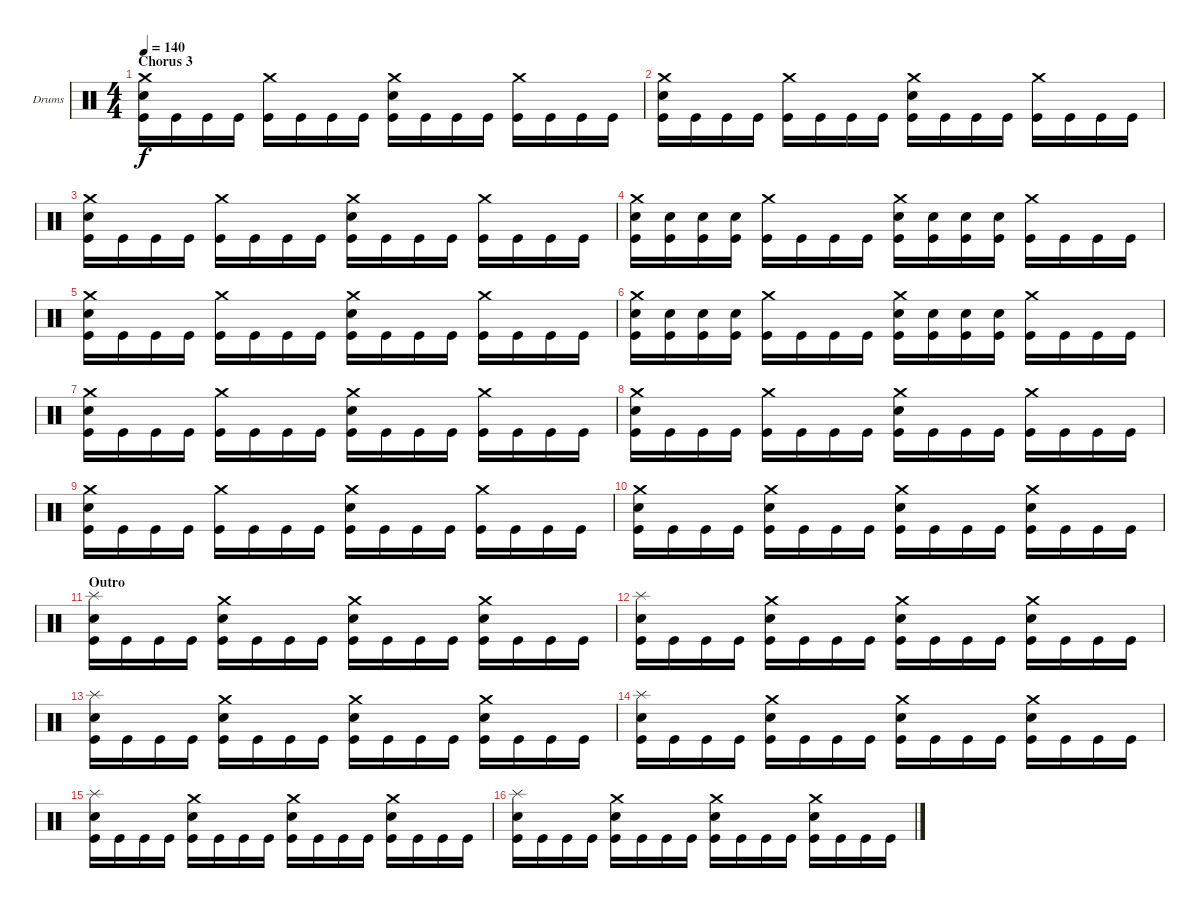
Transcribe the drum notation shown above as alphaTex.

\defaultSystemsLayout 4
\bracketExtendMode groupsimilarinstruments
\firstSystemTrackNameOrientation horizontal
\otherSystemsTrackNameOrientation horizontal
\track ("Ventor" "Drums") {instrument percussion}
\staff {score}
\articulation defaults
\ts (4 4)
\section ("" "Chorus 3")
\tempo 140
\clef neutral
\scale
0.5
\ks c
("Kick (hit)" "Snare (hit) 2" "Crash medium (hit)").16{dy f} "Kick (hit)".16 "Kick (hit)".16 "Kick (hit)".16 ("Kick (hit)" "Crash medium (hit)").16 "Kick (hit)".16 "Kick (hit)".16 "Kick (hit)".16 ("Kick (hit)" "Snare (hit) 2" "Crash medium (hit)").16 "Kick (hit)".16 "Kick (hit)".16 "Kick (hit)".16 ("Kick (hit)" "Crash medium (hit)").16 "Kick (hit)".16 "Kick (hit)".16 "Kick (hit)".16 |
\scale
0.5 ("Kick (hit)" "Snare (hit) 2" "Crash medium (hit)").16 "Kick (hit)".16 "Kick (hit)".16 "Kick (hit)".16 ("Kick (hit)" "Crash medium (hit)").16 "Kick (hit)".16 "Kick (hit)".16 "Kick (hit)".16 ("Kick (hit)" "Snare (hit) 2" "Crash medium (hit)").16 "Kick (hit)".16 "Kick (hit)".16 "Kick (hit)".16 ("Kick (hit)" "Crash medium (hit)").16 "Kick (hit)".16 "Kick (hit)".16 "Kick (hit)".16 |
\scale
0.5 ("Kick (hit)" "Snare (hit) 2" "Crash medium (hit)").16 "Kick (hit)".16 "Kick (hit)".16 "Kick (hit)".16 ("Kick (hit)" "Crash medium (hit)").16 "Kick (hit)".16 "Kick (hit)".16 "Kick (hit)".16 ("Kick (hit)" "Snare (hit) 2" "Crash medium (hit)").16 "Kick (hit)".16 "Kick (hit)".16 "Kick (hit)".16 ("Kick (hit)" "Crash medium (hit)").16 "Kick (hit)".16 "Kick (hit)".16 "Kick (hit)".16 |
\scale
0.5 ("Kick (hit)" "Snare (hit) 2" "Crash medium (hit)").16 ("Kick (hit)" "Snare (hit) 2").16 ("Kick (hit)" "Snare (hit) 2").16 ("Kick (hit)" "Snare (hit) 2").16 ("Kick (hit)" "Crash medium (hit)").16 "Kick (hit)".16 "Kick (hit)".16 "Kick (hit)".16 ("Kick (hit)" "Snare (hit) 2" "Crash medium (hit)").16 ("Kick (hit)" "Snare (hit) 2").16 ("Kick (hit)" "Snare (hit) 2").16 ("Kick (hit)" "Snare (hit) 2").16 ("Kick (hit)" "Crash medium (hit)").16 "Kick (hit)".16 "Kick (hit)".16 "Kick (hit)".16 |
\scale
0.5 ("Kick (hit)" "Snare (hit) 2" "Crash medium (hit)").16 "Kick (hit)".16 "Kick (hit)".16 "Kick (hit)".16 ("Kick (hit)" "Crash medium (hit)").16 "Kick (hit)".16 "Kick (hit)".16 "Kick (hit)".16 ("Kick (hit)" "Snare (hit) 2" "Crash medium (hit)").16 "Kick (hit)".16 "Kick (hit)".16 "Kick (hit)".16 ("Kick (hit)" "Crash medium (hit)").16 "Kick (hit)".16 "Kick (hit)".16 "Kick (hit)".16 |
\scale
0.5 ("Kick (hit)" "Snare (hit) 2" "Crash medium (hit)").16 ("Kick (hit)" "Snare (hit) 2").16 ("Kick (hit)" "Snare (hit) 2").16 ("Kick (hit)" "Snare (hit) 2").16 ("Kick (hit)" "Crash medium (hit)").16 "Kick (hit)".16 "Kick (hit)".16 "Kick (hit)".16 ("Kick (hit)" "Snare (hit) 2" "Crash medium (hit)").16 ("Kick (hit)" "Snare (hit) 2").16 ("Kick (hit)" "Snare (hit) 2").16 ("Kick (hit)" "Snare (hit) 2").16 ("Kick (hit)" "Crash medium (hit)").16 "Kick (hit)".16 "Kick (hit)".16 "Kick (hit)".16 |
\scale
0.5 ("Kick (hit)" "Snare (hit) 2" "Crash medium (hit)").16 "Kick (hit)".16 "Kick (hit)".16 "Kick (hit)".16 ("Kick (hit)" "Crash medium (hit)").16 "Kick (hit)".16 "Kick (hit)".16 "Kick (hit)".16 ("Kick (hit)" "Snare (hit) 2" "Crash medium (hit)").16 "Kick (hit)".16 "Kick (hit)".16 "Kick (hit)".16 ("Kick (hit)" "Crash medium (hit)").16 "Kick (hit)".16 "Kick (hit)".16 "Kick (hit)".16 |
\scale
0.5 ("Kick (hit)" "Snare (hit) 2" "Crash medium (hit)").16 "Kick (hit)".16 "Kick (hit)".16 "Kick (hit)".16 ("Kick (hit)" "Crash medium (hit)").16 "Kick (hit)".16 "Kick (hit)".16 "Kick (hit)".16 ("Kick (hit)" "Snare (hit) 2" "Crash medium (hit)").16 "Kick (hit)".16 "Kick (hit)".16 "Kick (hit)".16 ("Kick (hit)" "Crash medium (hit)").16 "Kick (hit)".16 "Kick (hit)".16 "Kick (hit)".16 |
\scale
0.5 ("Kick (hit)" "Snare (hit) 2" "Crash medium (hit)").16 "Kick (hit)".16 "Kick (hit)".16 "Kick (hit)".16 ("Kick (hit)" "Crash medium (hit)").16 "Kick (hit)".16 "Kick (hit)".16 "Kick (hit)".16 ("Kick (hit)" "Snare (hit) 2" "Crash medium (hit)").16 "Kick (hit)".16 "Kick (hit)".16 "Kick (hit)".16 ("Kick (hit)" "Crash medium (hit)").16 "Kick (hit)".16 "Kick (hit)".16 "Kick (hit)".16 |
\scale
0.5 ("Kick (hit)" "Snare (hit) 2" "Crash medium (hit)").16 "Kick (hit)".16 "Kick (hit)".16 "Kick (hit)".16 ("Kick (hit)" "Crash medium (hit)" "Snare (hit) 2").16 "Kick (hit)".16 "Kick (hit)".16 "Kick (hit)".16 ("Kick (hit)" "Snare (hit) 2" "Crash medium (hit)").16 "Kick (hit)".16 "Kick (hit)".16 "Kick (hit)".16 ("Kick (hit)" "Crash medium (hit)" "Snare (hit) 2").16 "Kick (hit)".16 "Kick (hit)".16 "Kick (hit)".16 |
\section ("" "Outro")
\scale
0.5 ("Kick (hit)" "Splash (hit)" "Snare (hit) 2").16 "Kick (hit)".16 "Kick (hit)".16 "Kick (hit)".16 ("Kick (hit)" "Crash medium (hit)" "Snare (hit) 2").16 "Kick (hit)".16 "Kick (hit)".16 "Kick (hit)".16 ("Kick (hit)" "Crash medium (hit)" "Snare (hit) 2").16 "Kick (hit)".16 "Kick (hit)".16 "Kick (hit)".16 ("Kick (hit)" "Crash medium (hit)" "Snare (hit) 2").16 "Kick (hit)".16 "Kick (hit)".16 "Kick (hit)".16 |
\scale
0.5 ("Kick (hit)" "Splash (hit)" "Snare (hit) 2").16 "Kick (hit)".16 "Kick (hit)".16 "Kick (hit)".16 ("Kick (hit)" "Crash medium (hit)" "Snare (hit) 2").16 "Kick (hit)".16 "Kick (hit)".16 "Kick (hit)".16 ("Kick (hit)" "Crash medium (hit)" "Snare (hit) 2").16 "Kick (hit)".16 "Kick (hit)".16 "Kick (hit)".16 ("Kick (hit)" "Crash medium (hit)" "Snare (hit) 2").16 "Kick (hit)".16 "Kick (hit)".16 "Kick (hit)".16 |
\scale
0.5 ("Kick (hit)" "Splash (hit)" "Snare (hit) 2").16 "Kick (hit)".16 "Kick (hit)".16 "Kick (hit)".16 ("Kick (hit)" "Crash medium (hit)" "Snare (hit) 2").16 "Kick (hit)".16 "Kick (hit)".16 "Kick (hit)".16 ("Kick (hit)" "Crash medium (hit)" "Snare (hit) 2").16 "Kick (hit)".16 "Kick (hit)".16 "Kick (hit)".16 ("Kick (hit)" "Crash medium (hit)" "Snare (hit) 2").16 "Kick (hit)".16 "Kick (hit)".16 "Kick (hit)".16 |
\scale
0.5 ("Kick (hit)" "Splash (hit)" "Snare (hit) 2").16 "Kick (hit)".16 "Kick (hit)".16 "Kick (hit)".16 ("Kick (hit)" "Crash medium (hit)" "Snare (hit) 2").16 "Kick (hit)".16 "Kick (hit)".16 "Kick (hit)".16 ("Kick (hit)" "Crash medium (hit)" "Snare (hit) 2").16 "Kick (hit)".16 "Kick (hit)".16 "Kick (hit)".16 ("Kick (hit)" "Crash medium (hit)" "Snare (hit) 2").16 "Kick (hit)".16 "Kick (hit)".16 "Kick (hit)".16 |
\scale
0.5 ("Kick (hit)" "Splash (hit)" "Snare (hit) 2").16 "Kick (hit)".16 "Kick (hit)".16 "Kick (hit)".16 ("Kick (hit)" "Crash medium (hit)" "Snare (hit) 2").16 "Kick (hit)".16 "Kick (hit)".16 "Kick (hit)".16 ("Kick (hit)" "Crash medium (hit)" "Snare (hit) 2").16 "Kick (hit)".16 "Kick (hit)".16 "Kick (hit)".16 ("Kick (hit)" "Crash medium (hit)" "Snare (hit) 2").16 "Kick (hit)".16 "Kick (hit)".16 "Kick (hit)".16 |
\scale
0.5 ("Kick (hit)" "Splash (hit)" "Snare (hit) 2").16 "Kick (hit)".16 "Kick (hit)".16 "Kick (hit)".16 ("Kick (hit)" "Crash medium (hit)" "Snare (hit) 2").16 "Kick (hit)".16 "Kick (hit)".16 "Kick (hit)".16 ("Kick (hit)" "Crash medium (hit)" "Snare (hit) 2").16 "Kick (hit)".16 "Kick (hit)".16 "Kick (hit)".16 ("Kick (hit)" "Crash medium (hit)" "Snare (hit) 2").16 "Kick (hit)".16 "Kick (hit)".16 "Kick (hit)".16
